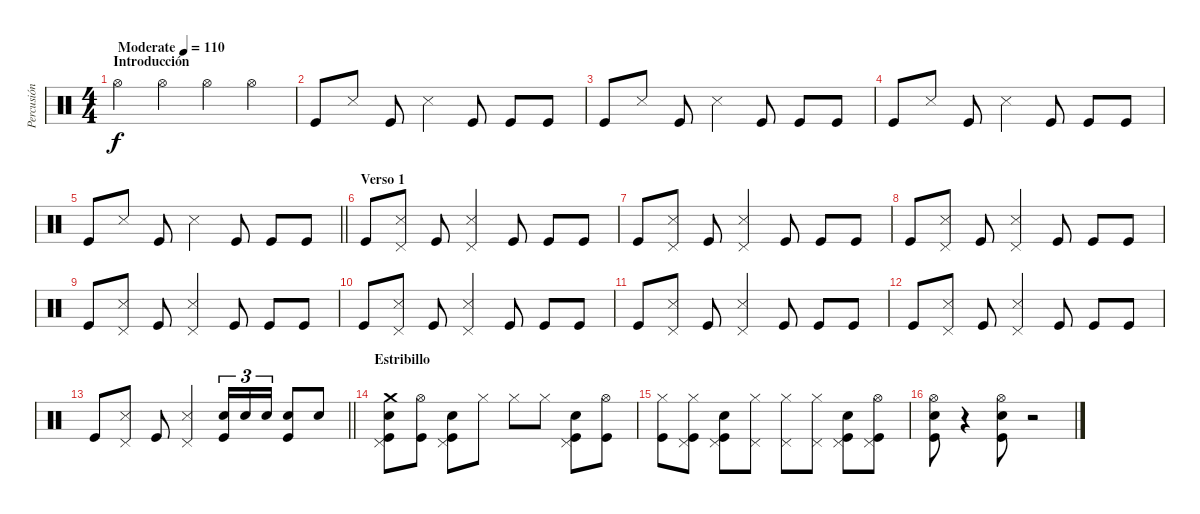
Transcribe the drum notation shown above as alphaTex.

\track ("Percusión" "Percusión") {instrument percussion}
\staff {score}
\articulation defaults
\ts (4 4)
\section ("" "Introducción")
\tempo (110 "Moderate")
\clef neutral
\ks c "Hi-Hat (open)".4{dy f} "Hi-Hat (open)".4 "Hi-Hat (open)".4 "Hi-Hat (open)".4
|
"Kick (hit)".8 "Metronome (hit)".8 "Kick (hit)".8 "Metronome (hit)".4 "Kick (hit)".8 "Kick (hit)".8 "Kick (hit)".8 |
"Kick (hit)".8 "Metronome (hit)".8 "Kick (hit)".8 "Metronome (hit)".4 "Kick (hit)".8 "Kick (hit)".8 "Kick (hit)".8 |
"Kick (hit)".8 "Metronome (hit)".8 "Kick (hit)".8 "Metronome (hit)".4 "Kick (hit)".8 "Kick (hit)".8 "Kick (hit)".8 |
\barLineRight lightlight "Kick (hit)".8 "Metronome (hit)".8 "Kick (hit)".8 "Metronome (hit)".4 "Kick (hit)".8 "Kick (hit)".8 "Kick (hit)".8
|
\section ("" "Verso 1")
"Kick (hit)".8 ("Metronome (hit)" "Pedal Hi-Hat (hit)").8 "Kick (hit)".8 ("Metronome (hit)" "Pedal Hi-Hat (hit)").4 "Kick (hit)".8 "Kick (hit)".8 "Kick (hit)".8 |
"Kick (hit)".8 ("Metronome (hit)" "Pedal Hi-Hat (hit)").8 "Kick (hit)".8 ("Metronome (hit)" "Pedal Hi-Hat (hit)").4 "Kick (hit)".8 "Kick (hit)".8 "Kick (hit)".8 |
"Kick (hit)".8 ("Metronome (hit)" "Pedal Hi-Hat (hit)").8 "Kick (hit)".8 ("Metronome (hit)" "Pedal Hi-Hat (hit)").4 "Kick (hit)".8 "Kick (hit)".8 "Kick (hit)".8 |
"Kick (hit)".8 ("Metronome (hit)" "Pedal Hi-Hat (hit)").8 "Kick (hit)".8 ("Metronome (hit)" "Pedal Hi-Hat (hit)").4 "Kick (hit)".8 "Kick (hit)".8 "Kick (hit)".8 |
"Kick (hit)".8 ("Metronome (hit)" "Pedal Hi-Hat (hit)").8 "Kick (hit)".8 ("Metronome (hit)" "Pedal Hi-Hat (hit)").4 "Kick (hit)".8 "Kick (hit)".8 "Kick (hit)".8 |
"Kick (hit)".8 ("Metronome (hit)" "Pedal Hi-Hat (hit)").8 "Kick (hit)".8 ("Metronome (hit)" "Pedal Hi-Hat (hit)").4 "Kick (hit)".8 "Kick (hit)".8 "Kick (hit)".8 |
"Kick (hit)".8 ("Metronome (hit)" "Pedal Hi-Hat (hit)").8 "Kick (hit)".8 ("Metronome (hit)" "Pedal Hi-Hat (hit)").4 "Kick (hit)".8 "Kick (hit)".8 "Kick (hit)".8 |
\barLineRight lightlight "Kick (hit)".8
("Metronome (hit)" "Pedal Hi-Hat (hit)").8 "Kick (hit)".8 ("Metronome (hit)" "Pedal Hi-Hat (hit)").4 ("Electric Snare (hit)" "Kick (hit)").16{tu (3 2)} "Electric Snare (hit)".16{tu (3 2)} "Electric Snare (hit)".16{tu (3 2)} ("Electric Snare (hit)" "Kick (hit)").8 "Electric Snare (hit)".8 |
\section ("" "Estribillo")
("Crash medium (hit)" "Electric Snare (hit)" "Kick (hit)" "Pedal Hi-Hat (hit)").8 ("Hi-Hat (open)" "Kick (hit)").8 ("Electric Snare (hit)" "Kick (hit)" "Pedal Hi-Hat (hit)").8 "Hi-Hat (closed)".8 "Hi-Hat (closed)".8 "Hi-Hat (closed)".8 ("Electric Snare (hit)" "Kick (hit)" "Pedal Hi-Hat (hit)").8 ("Hi-Hat (open)" "Kick (hit)").8 |
("Hi-Hat (closed)" "Kick (hit)").8 ("Hi-Hat (closed)" "Kick (hit)" "Pedal Hi-Hat (hit)").8 ("Electric Snare (hit)" "Kick (hit)" "Pedal Hi-Hat (hit)").8 ("Hi-Hat (closed)" "Pedal Hi-Hat (hit)").8 ("Hi-Hat (closed)" "Pedal Hi-Hat (hit)").8 ("Hi-Hat (closed)" "Pedal Hi-Hat (hit)").8 ("Electric Snare (hit)" "Kick (hit)" "Pedal Hi-Hat (hit)").8 ("Hi-Hat (open)" "Kick (hit)" "Pedal Hi-Hat (hit)").8 |
("Hi-Hat (open)" "Electric Snare (hit)" "Kick (hit)").8 r.4 ("Hi-Hat (open)" "Electric Snare (hit)" "Kick (hit)").8 r.2
